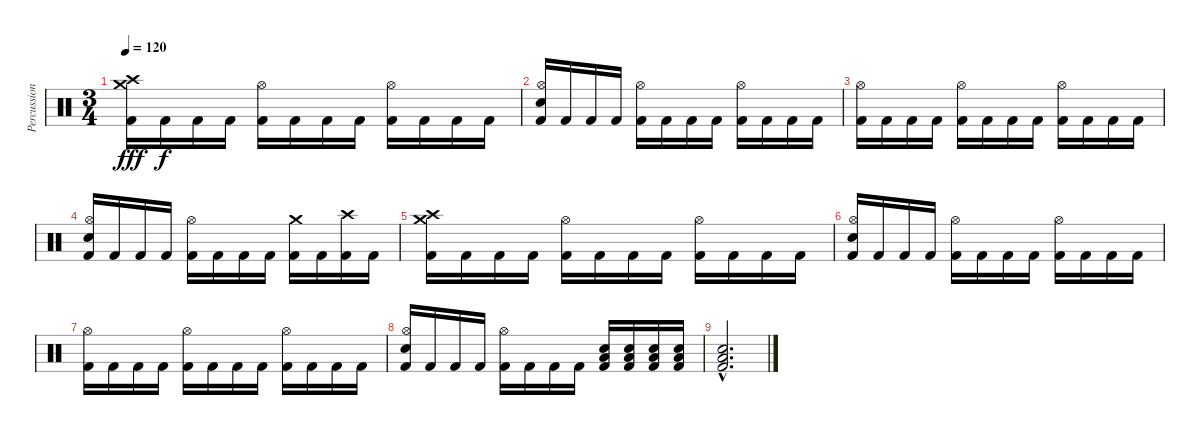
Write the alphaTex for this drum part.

\track ("Percussion" "Percussion") {instrument percussion}
\staff {score}
\articulation defaults
\ts (3 4)
\tempo 120
\clef neutral
\ks c
("Crash high (hit)" "Crash medium (hit)" "Kick (hit) 2").16{dy fff} "Kick (hit) 2".16{dy f} "Kick (hit) 2".16 "Kick (hit) 2".16 ("Hi-Hat (open)" "Kick (hit) 2").16 "Kick (hit) 2".16 "Kick (hit) 2".16 "Kick (hit) 2".16 ("Hi-Hat (open)" "Kick (hit) 2").16 "Kick (hit) 2".16 "Kick (hit) 2".16 "Kick (hit) 2".16 |
("Hi-Hat (open)" "Electric Snare (hit)" "Kick (hit) 2").16 "Kick (hit) 2".16 "Kick (hit) 2".16 "Kick (hit) 2".16 ("Hi-Hat (open)" "Kick (hit) 2").16 "Kick (hit) 2".16 "Kick (hit) 2".16 "Kick (hit) 2".16 ("Hi-Hat (open)" "Kick (hit) 2").16 "Kick (hit) 2".16 "Kick (hit) 2".16 "Kick (hit) 2".16 |
("Hi-Hat (open)" "Kick (hit) 2").16 "Kick (hit) 2".16 "Kick (hit) 2".16 "Kick (hit) 2".16 ("Hi-Hat (open)" "Kick (hit) 2").16 "Kick (hit) 2".16 "Kick (hit) 2".16 "Kick (hit) 2".16 ("Hi-Hat (open)" "Kick (hit) 2").16 "Kick (hit) 2".16 "Kick (hit) 2".16 "Kick (hit) 2".16 |
("Hi-Hat (open)" "Electric Snare (hit)" "Kick (hit) 2").16 "Kick (hit) 2".16 "Kick (hit) 2".16 "Kick (hit) 2".16 ("Hi-Hat (open)" "Kick (hit) 2").16 "Kick (hit) 2".16 "Kick (hit) 2".16 "Kick (hit) 2".16 ("Crash medium (hit)" "Kick (hit) 2").16 "Kick (hit) 2".16 ("Crash high (hit)" "Kick (hit) 2").16 "Kick (hit) 2".16 |
("Crash medium (hit)" "Crash high (hit)" "Kick (hit) 2").16 "Kick (hit) 2".16 "Kick (hit) 2".16 "Kick (hit) 2".16 ("Hi-Hat (open)" "Kick (hit) 2").16 "Kick (hit) 2".16 "Kick (hit) 2".16 "Kick (hit) 2".16 ("Hi-Hat (open)" "Kick (hit) 2").16 "Kick (hit) 2".16 "Kick (hit) 2".16 "Kick (hit) 2".16 |
("Hi-Hat (open)" "Electric Snare (hit)" "Kick (hit) 2").16 "Kick (hit) 2".16 "Kick (hit) 2".16 "Kick (hit) 2".16 ("Hi-Hat (open)" "Kick (hit) 2").16 "Kick (hit) 2".16 "Kick (hit) 2".16 "Kick (hit) 2".16 ("Hi-Hat (open)" "Kick (hit) 2").16 "Kick (hit) 2".16 "Kick (hit) 2".16 "Kick (hit) 2".16 |
("Hi-Hat (open)" "Kick (hit) 2").16 "Kick (hit) 2".16 "Kick (hit) 2".16 "Kick (hit) 2".16 ("Hi-Hat (open)" "Kick (hit) 2").16 "Kick (hit) 2".16 "Kick (hit) 2".16 "Kick (hit) 2".16 ("Hi-Hat (open)" "Kick (hit) 2").16 "Kick (hit) 2".16 "Kick (hit) 2".16 "Kick (hit) 2".16 |
("Hi-Hat (open)" "Electric Snare (hit)" "Kick (hit) 2").16 "Kick (hit) 2".16 "Kick (hit) 2".16 "Kick (hit) 2".16 ("Hi-Hat (open)" "Kick (hit) 2").16 "Kick (hit) 2".16 "Kick (hit) 2".16 "Kick (hit) 2".16 ("Low Tom (hit)" "Electric Snare (hit)" "Kick (hit) 2").16 ("Low Tom (hit)" "Electric Snare (hit)" "Kick (hit) 2").16 ("Low Tom (hit)" "Electric Snare (hit)" "Kick (hit) 2").16 ("Low Tom (hit)" "Electric Snare (hit)" "Kick (hit) 2").16 |
("Low Tom (hit)"{hac} "Electric Snare (hit)"{hac} "Kick (hit) 2"{hac}).2{d}
